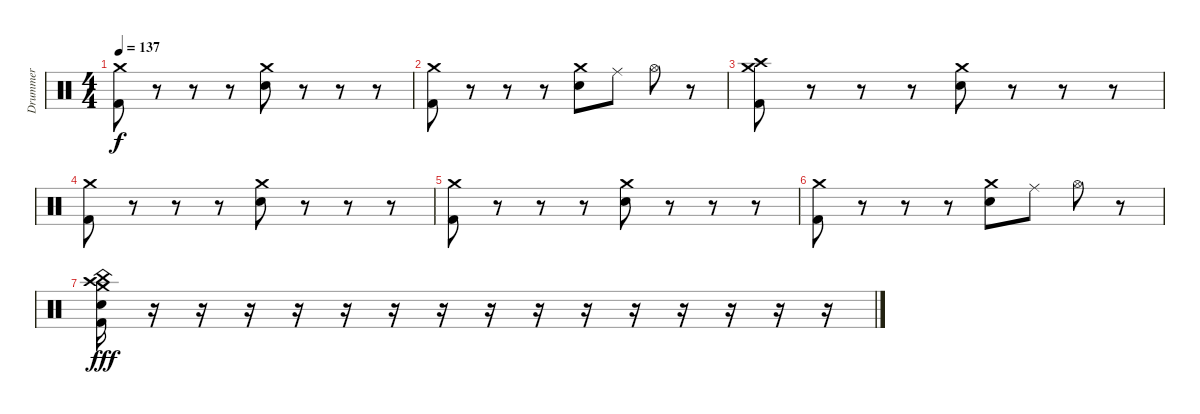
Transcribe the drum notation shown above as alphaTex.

\track ("Drummer" "Drummer") {instrument percussion}
\staff {score}
\articulation defaults
\ts (4 4)
\tempo 137
\clef neutral
\ks c
("Crash medium (hit)" "Kick (hit) 2").8{dy f} r.8 r.8 r.8 ("Crash medium (hit)" "Snare (hit) 2").8 r.8 r.8 r.8 |
("Crash medium (hit)" "Kick (hit) 2").8 r.8 r.8 r.8 ("Crash medium (hit)" "Snare (hit) 2").8 "Ride (middle)".8 "Hi-Hat (open)".8 r.8 |
("Crash medium (hit)" "Crash high (hit)" "Kick (hit) 2").8 r.8 r.8 r.8 ("Crash medium (hit)" "Snare (hit) 2").8 r.8 r.8 r.8 |
("Crash medium (hit)" "Kick (hit) 2").8 r.8 r.8 r.8 ("Crash medium (hit)" "Snare (hit) 2").8 r.8 r.8 r.8 |
("Crash medium (hit)" "Kick (hit) 2").8 r.8 r.8 r.8 ("Crash medium (hit)" "Snare (hit) 2").8 r.8 r.8 r.8 |
("Crash medium (hit)" "Kick (hit) 2").8 r.8 r.8 r.8 ("Crash medium (hit)" "Snare (hit) 2").8 "Ride (middle)".8 "Hi-Hat (open)".8 r.8 |
("Crash high (hit)" "Crash medium (hit)" "Electric Snare (hit)" "China (hit)" "Kick (hit) 2").16{dy fff} r.16 r.16 r.16 r.16 r.16 r.16 r.16 r.16 r.16 r.16 r.16 r.16 r.16 r.16 r.16
